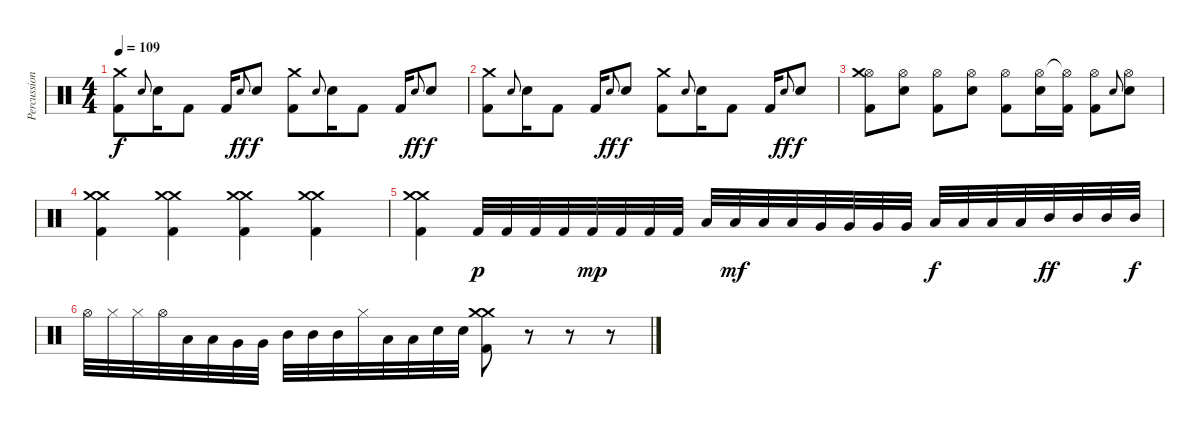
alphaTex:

\track ("Percussion" "Percussion") {instrument percussion}
\staff {score}
\articulation defaults
\ts (4 4)
\tempo 109
\clef neutral
\ks c
("Crash medium (hit)" "Kick (hit) 2").8{dy f} "Electric Snare (hit)".8{gr onbeat} "Electric Snare (hit)".16 "Kick (hit) 2".8 "Kick (hit) 2".16 "Electric Snare (hit)".8{gr onbeat dy ff} "Electric Snare (hit)".8{dy f} ("Crash medium (hit)" "Kick (hit) 2").8 "Electric Snare (hit)".8{gr onbeat} "Electric Snare (hit)".16 "Kick (hit) 2".8 "Kick (hit) 2".16 "Electric Snare (hit)".8{gr onbeat dy ff} "Electric Snare (hit)".8{dy f} |
("Crash medium (hit)" "Kick (hit) 2").8 "Electric Snare (hit)".8{gr onbeat} "Electric Snare (hit)".16 "Kick (hit) 2".8 "Kick (hit) 2".16 "Electric Snare (hit)".8{gr onbeat dy ff} "Electric Snare (hit)".8{dy f} ("Crash medium (hit)" "Kick (hit) 2").8 "Electric Snare (hit)".8{gr onbeat} "Electric Snare (hit)".16 "Kick (hit) 2".8 "Kick (hit) 2".16 "Electric Snare (hit)".8{gr onbeat dy ff} "Electric Snare (hit)".8{dy f} |
("Hi-Hat (open)" "Crash medium (hit)" "Kick (hit) 2").8 ("Hi-Hat (open)" "Electric Snare (hit)").8 ("Hi-Hat (open)" "Kick (hit) 2").8 ("Hi-Hat (open)" "Electric Snare (hit)").8 ("Hi-Hat (open)" "Kick (hit) 2").8 ("Hi-Hat (open)" "Electric Snare (hit)").16 ("Hi-Hat (open)"{t} "Kick (hit) 2").16 ("Hi-Hat (open)" "Kick (hit) 2").8 "Electric Snare (hit)".8{gr onbeat} ("Hi-Hat (open)" "Electric Snare (hit)").8 |
("Crash medium (hit)" "Crash medium (hit)" "Kick (hit) 2").4 ("Crash medium (hit)" "Crash medium (hit)" "Kick (hit) 2").4 ("Crash medium (hit)" "Crash medium (hit)" "Kick (hit) 2").4 ("Crash medium (hit)" "Crash medium (hit)" "Kick (hit) 2").4 |
("Crash medium (hit)" "Crash medium (hit)" "Kick (hit) 2").4 "Kick (hit) 2".32{dy p} "Kick (hit) 2".32 "Kick (hit) 2".32 "Kick (hit) 2".32 "Kick (hit) 2".32{dy mp} "Kick (hit) 2".32 "Kick (hit) 2".32 "Kick (hit) 2".32 "Low Floor Tom (hit)".32 "Low Floor Tom (hit)".32{dy mf} "Low Floor Tom (hit)".32 "Low Floor Tom (hit)".32 "Very Low Tom (hit)".32 "Very Low Tom (hit)".32 "Very Low Tom (hit)".32 "Very Low Tom (hit)".32 "Low Tom (hit)".32{dy f} "Low Tom (hit)".32 "Low Tom (hit)".32 "Low Tom (hit)".32 "Mid Tom (hit)".32{dy ff} "Mid Tom (hit)".32 "Mid Tom (hit)".32 "Mid Tom (hit)".32{dy f} |
"Hi-Hat (open)".32 "Hi-Hat (closed)".32 "Hi-Hat (closed)".32 "Hi-Hat (open)".32 "Low Floor Tom (hit)".32 "Low Floor Tom (hit)".32 "Very Low Tom (hit)".32 "Very Low Tom (hit)".32 "Mid Tom (hit)".32 "Mid Tom (hit)".32 "Mid Tom (hit)".32 "Hi-Hat (closed)".32 "Low Floor Tom (hit)".32 "Low Floor Tom (hit)".32 "Electric Snare (hit)".32 "Electric Snare (hit)".32 ("Crash medium (hit)" "Crash medium (hit)" "Kick (hit) 2").8 r.8 r.8 r.8
